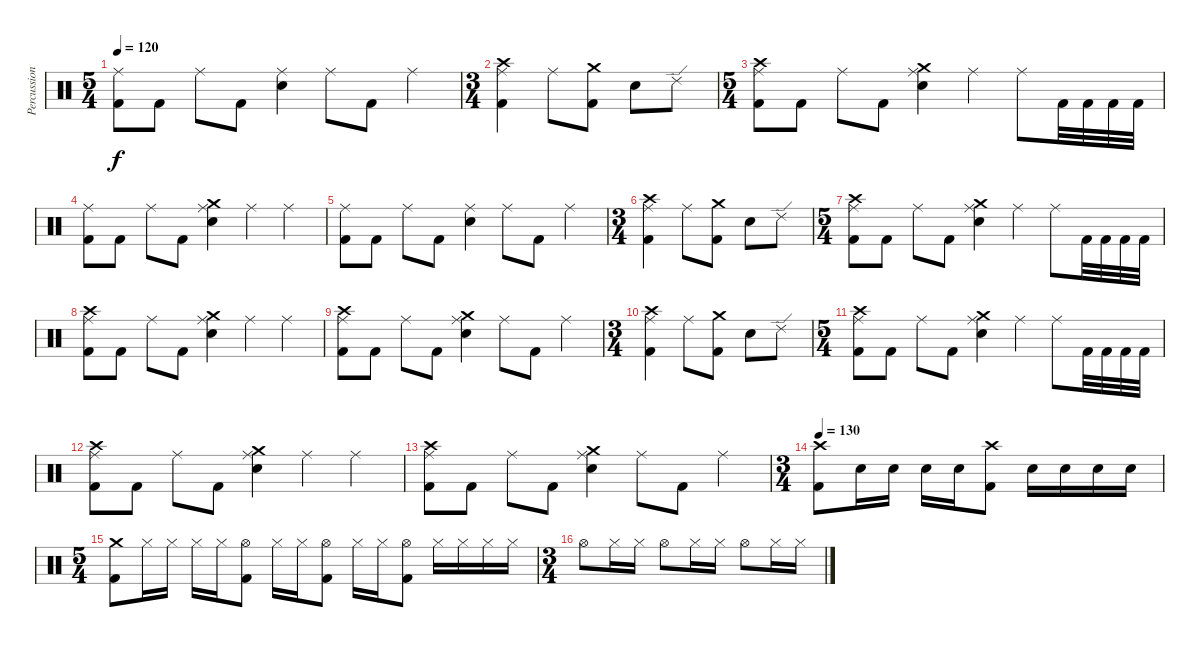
\track ("Percussion" "Percussion") {instrument percussion}
\staff {score}
\articulation defaults
\ts (5 4)
\tempo 120
\clef neutral
\ks c
("Ride (middle)" "Kick (hit) 2").8{dy f} "Kick (hit) 2".8 "Ride (middle)".8 "Kick (hit) 2".8 ("Ride (middle)" "Electric Snare (hit)").4 "Ride (middle)".8 "Kick (hit) 2".8 "Ride (middle)".4 |
\ts (3 4)
("Crash high (hit)" "Ride (middle)" "Kick (hit) 2").4 "Ride (middle)".8 ("Crash medium (hit)" "Kick (hit) 2").8 "Electric Snare (hit)".8 "Ride (edge) 2".8 |
\ts (5 4)
("Crash high (hit)" "Ride (middle)" "Kick (hit) 2").8 "Kick (hit) 2".8 "Ride (middle)".8 "Kick (hit) 2".8 ("Crash medium (hit)" "Ride (middle)" "Electric Snare (hit)").4 "Ride (middle)".4 "Ride (middle)".8 "Kick (hit) 2".32 "Kick (hit) 2".32 "Kick (hit) 2".32 "Kick (hit) 2".32 |
("Ride (middle)" "Kick (hit) 2").8 "Kick (hit) 2".8 "Ride (middle)".8 "Kick (hit) 2".8 ("Crash medium (hit)" "Ride (middle)" "Electric Snare (hit)").4 "Ride (middle)".4 "Ride (middle)".4 |
("Ride (middle)" "Kick (hit) 2").8 "Kick (hit) 2".8 "Ride (middle)".8 "Kick (hit) 2".8 ("Ride (middle)" "Electric Snare (hit)").4 "Ride (middle)".8 "Kick (hit) 2".8 "Ride (middle)".4 |
\ts (3 4)
("Crash high (hit)" "Ride (middle)" "Kick (hit) 2").4 "Ride (middle)".8 ("Crash medium (hit)" "Kick (hit) 2").8 "Electric Snare (hit)".8 "Ride (edge) 2".8 |
\ts (5 4)
("Crash high (hit)" "Ride (middle)" "Kick (hit) 2").8 "Kick (hit) 2".8 "Ride (middle)".8 "Kick (hit) 2".8 ("Crash medium (hit)" "Ride (middle)" "Electric Snare (hit)").4 "Ride (middle)".4 "Ride (middle)".8 "Kick (hit) 2".32 "Kick (hit) 2".32 "Kick (hit) 2".32 "Kick (hit) 2".32 |
("Crash high (hit)" "Ride (middle)" "Kick (hit) 2").8 "Kick (hit) 2".8 "Ride (middle)".8 "Kick (hit) 2".8 ("Crash medium (hit)" "Ride (middle)" "Electric Snare (hit)").4 "Ride (middle)".4 "Ride (middle)".4 |
("Crash high (hit)" "Ride (middle)" "Kick (hit) 2").8 "Kick (hit) 2".8 "Ride (middle)".8 "Kick (hit) 2".8 ("Crash medium (hit)" "Ride (middle)" "Electric Snare (hit)").4 "Ride (middle)".8 "Kick (hit) 2".8 "Ride (middle)".4 |
\ts (3 4)
("Crash high (hit)" "Ride (middle)" "Kick (hit) 2").4 "Ride (middle)".8 ("Crash medium (hit)" "Kick (hit) 2").8 "Electric Snare (hit)".8 "Ride (edge) 2".8 |
\ts (5 4)
("Crash high (hit)" "Ride (middle)" "Kick (hit) 2").8 "Kick (hit) 2".8 "Ride (middle)".8 "Kick (hit) 2".8 ("Crash medium (hit)" "Ride (middle)" "Electric Snare (hit)").4 "Ride (middle)".4 "Ride (middle)".8 "Kick (hit) 2".32 "Kick (hit) 2".32 "Kick (hit) 2".32 "Kick (hit) 2".32 |
("Crash high (hit)" "Ride (middle)" "Kick (hit) 2").8 "Kick (hit) 2".8 "Ride (middle)".8 "Kick (hit) 2".8 ("Crash medium (hit)" "Ride (middle)" "Electric Snare (hit)").4 "Ride (middle)".4 "Ride (middle)".4 |
("Crash high (hit)" "Ride (middle)" "Kick (hit) 2").8 "Kick (hit) 2".8 "Ride (middle)".8 "Kick (hit) 2".8 ("Crash medium (hit)" "Ride (middle)" "Electric Snare (hit)").4 "Ride (middle)".8 "Kick (hit) 2".8 "Ride (middle)".4 |
\ts (3 4)
\tempo 130
("Crash high (hit)" "Kick (hit) 2").8 "Electric Snare (hit)".16 "Electric Snare (hit)".16 "Electric Snare (hit)".16 "Electric Snare (hit)".16 ("Crash high (hit)" "Kick (hit) 2").8 "Electric Snare (hit)".16 "Electric Snare (hit)".16 "Electric Snare (hit)".16 "Electric Snare (hit)".16 |
\ts (5 4)
("Crash medium (hit)" "Kick (hit) 2").8 "Hi-Hat (closed)".16 "Hi-Hat (closed)".16 "Hi-Hat (closed)".16 "Hi-Hat (closed)".16 ("Hi-Hat (open)" "Kick (hit) 2").8 "Hi-Hat (closed)".16 "Hi-Hat (closed)".16 ("Hi-Hat (open)" "Kick (hit) 2").8 "Hi-Hat (closed)".16 "Hi-Hat (closed)".16 ("Hi-Hat (open)" "Kick (hit) 2").8 "Hi-Hat (closed)".16 "Hi-Hat (closed)".16 "Hi-Hat (closed)".16 "Hi-Hat (closed)".16 |
\ts (3 4)
"Hi-Hat (open)".8 "Hi-Hat (closed)".16 "Hi-Hat (closed)".16 "Hi-Hat (open)".8 "Hi-Hat (closed)".16 "Hi-Hat (closed)".16 "Hi-Hat (open)".8 "Hi-Hat (closed)".16 "Hi-Hat (closed)".16
